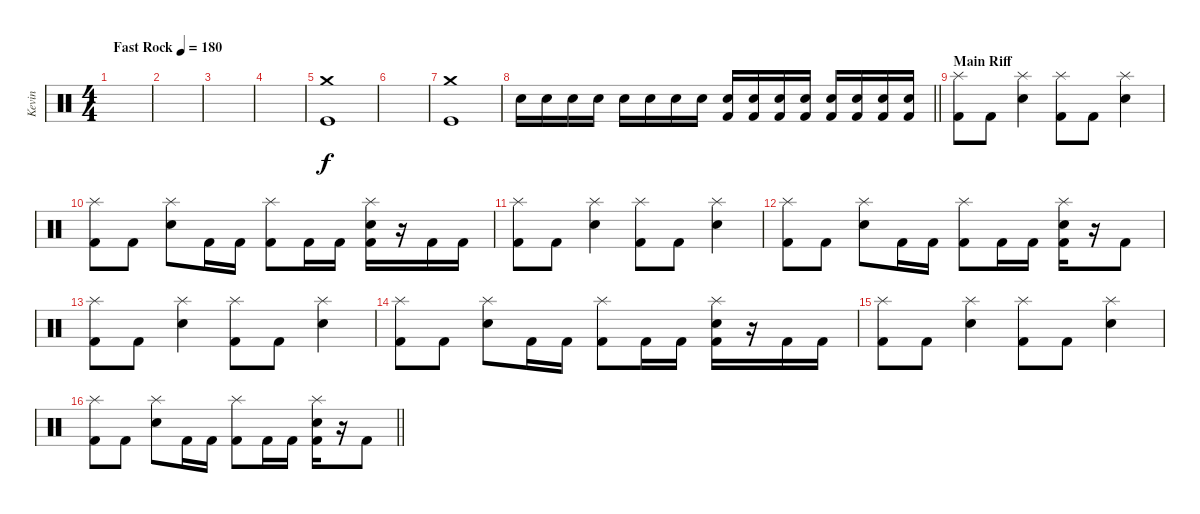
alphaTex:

\track ("Kevin" "Kevin") {instrument percussion}
\staff {score}
\articulation defaults
\ts (4 4)
\tempo (180 "Fast Rock")
\clef neutral
\ks c
|
|
|
|
("Crash medium (hit)" "Kick (hit)").1 |
|
("Crash medium (hit)" "Kick (hit)").1 |
\barLineRight lightlight "Electric Snare (hit)".16 "Electric Snare (hit)".16 "Electric Snare (hit)".16 "Electric Snare (hit)".16 "Electric Snare (hit)".16 "Electric Snare (hit)".16 "Electric Snare (hit)".16 "Electric Snare (hit)".16
("Electric Snare (hit)" "Kick (hit) 2").16 ("Electric Snare (hit)" "Kick (hit) 2").16 ("Electric Snare (hit)" "Kick (hit) 2").16 ("Electric Snare (hit)" "Kick (hit) 2").16 ("Electric Snare (hit)" "Kick (hit) 2").16 ("Electric Snare (hit)" "Kick (hit) 2").16 ("Electric Snare (hit)" "Kick (hit) 2").16 ("Electric Snare (hit)" "Kick (hit) 2").16 |
\section ("" "Main Riff")
("Splash (hit)" "Kick (hit) 2").8 "Kick (hit) 2".8 ("Splash (hit)" "Electric Snare (hit)").4 ("Splash (hit)" "Kick (hit) 2").8 "Kick (hit) 2".8 ("Splash (hit)" "Electric Snare (hit)").4 |
("Splash (hit)" "Kick (hit) 2").8 "Kick (hit) 2".8 ("Splash (hit)" "Electric Snare (hit)").8 "Kick (hit) 2".16 "Kick (hit) 2".16 ("Splash (hit)" "Kick (hit) 2").8 "Kick (hit) 2".16 "Kick (hit) 2".16 ("Splash (hit)" "Electric Snare (hit)" "Kick (hit) 2").16 r.16 "Kick (hit) 2".16 "Kick (hit) 2".16 |
("Splash (hit)" "Kick (hit) 2").8 "Kick (hit) 2".8 ("Splash (hit)" "Electric Snare (hit)").4 ("Splash (hit)" "Kick (hit) 2").8 "Kick (hit) 2".8 ("Splash (hit)" "Electric Snare (hit)").4 |
("Splash (hit)" "Kick (hit) 2").8 "Kick (hit) 2".8 ("Splash (hit)" "Electric Snare (hit)").8 "Kick (hit) 2".16 "Kick (hit) 2".16 ("Splash (hit)" "Kick (hit) 2").8 "Kick (hit) 2".16 "Kick (hit) 2".16 ("Splash (hit)" "Electric Snare (hit)" "Kick (hit) 2").16 r.16 "Kick (hit) 2".8 |
("Splash (hit)" "Kick (hit) 2").8 "Kick (hit) 2".8 ("Splash (hit)" "Electric Snare (hit)").4 ("Splash (hit)" "Kick (hit) 2").8 "Kick (hit) 2".8 ("Splash (hit)" "Electric Snare (hit)").4 |
("Splash (hit)" "Kick (hit) 2").8 "Kick (hit) 2".8 ("Splash (hit)" "Electric Snare (hit)").8 "Kick (hit) 2".16 "Kick (hit) 2".16 ("Splash (hit)" "Kick (hit) 2").8 "Kick (hit) 2".16 "Kick (hit) 2".16 ("Splash (hit)" "Electric Snare (hit)" "Kick (hit) 2").16 r.16 "Kick (hit) 2".16 "Kick (hit) 2".16 |
("Splash (hit)" "Kick (hit) 2").8 "Kick (hit) 2".8 ("Splash (hit)" "Electric Snare (hit)").4 ("Splash (hit)" "Kick (hit) 2").8 "Kick (hit) 2".8 ("Splash (hit)" "Electric Snare (hit)").4 |
\barLineRight lightlight
("Splash (hit)" "Kick (hit) 2").8 "Kick (hit) 2".8 ("Splash (hit)" "Electric Snare (hit)").8 "Kick (hit) 2".16 "Kick (hit) 2".16 ("Splash (hit)" "Kick (hit) 2").8 "Kick (hit) 2".16 "Kick (hit) 2".16 ("Splash (hit)" "Electric Snare (hit)" "Kick (hit) 2").16 r.16 "Kick (hit) 2".8
